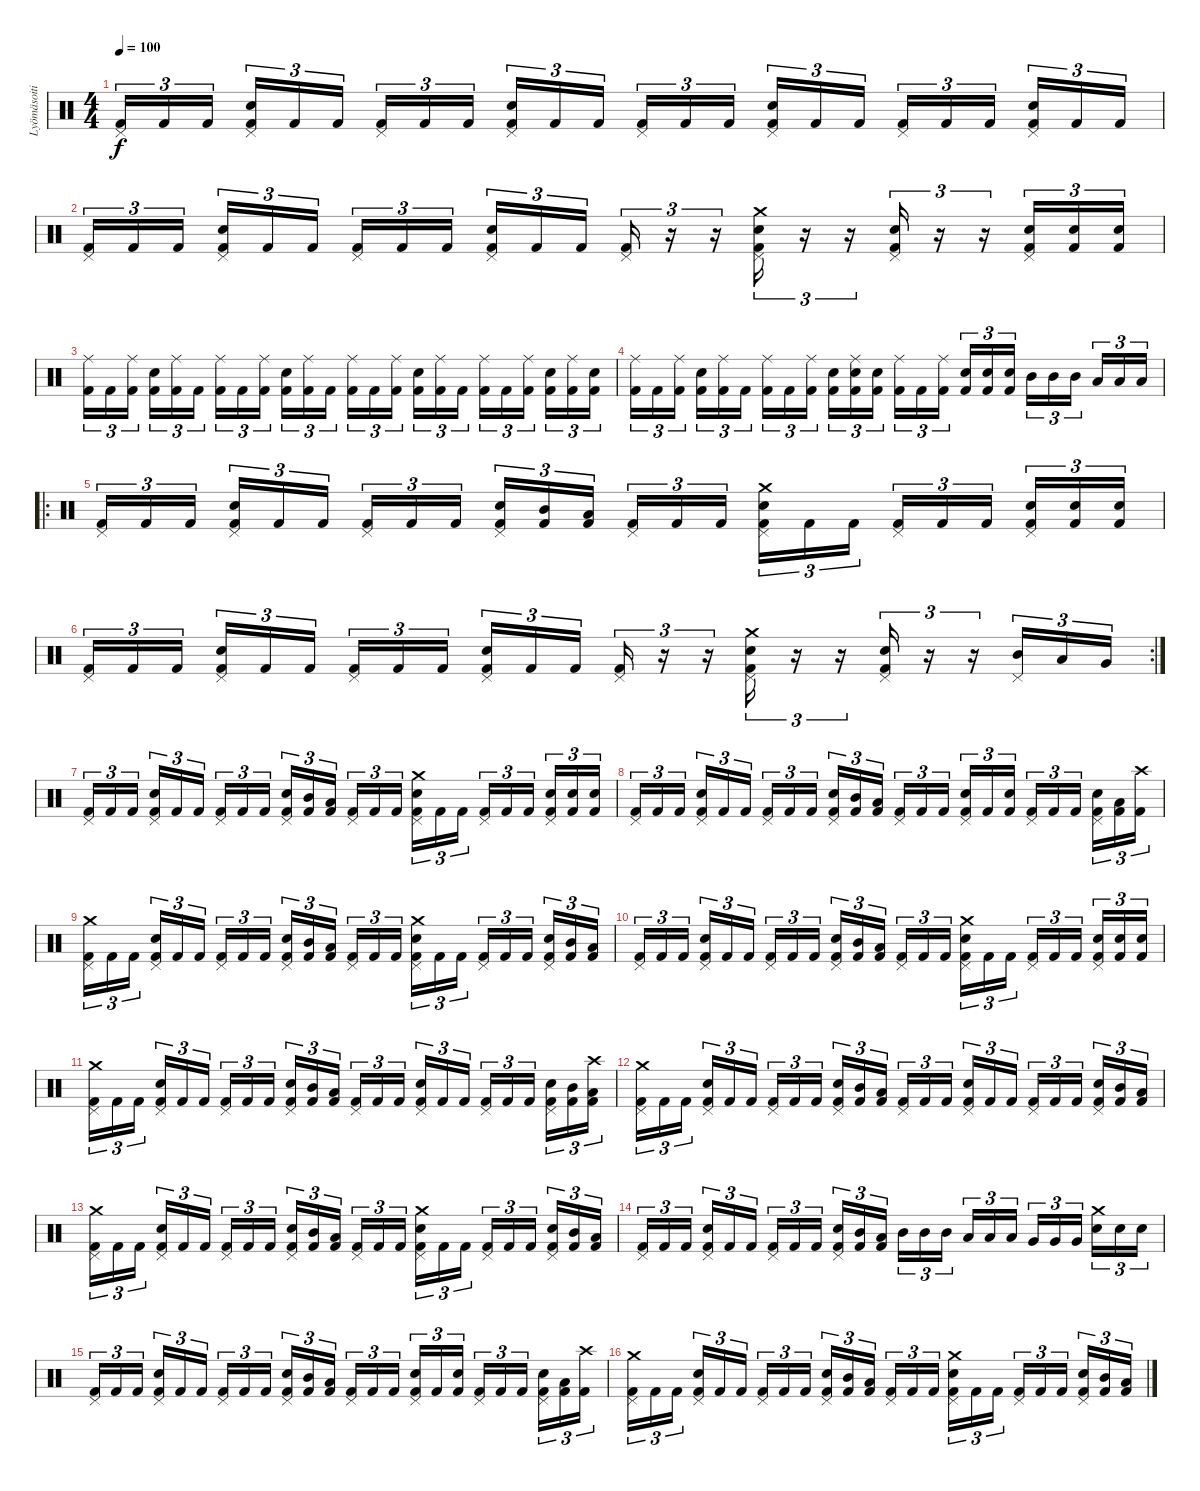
\track ("Lyömäsoitin" "Lyömäsoiti") {instrument percussion}
\staff {score}
\articulation defaults
\ts (4 4)
\tempo 100
\clef neutral
\ks c
("Kick (hit) 2" "Pedal Hi-Hat (hit)").16{tu (3 2) dy f} "Kick (hit) 2".16{tu (3 2)} "Kick (hit) 2".16{tu (3 2)} ("Kick (hit) 2" "Electric Snare (hit)" "Pedal Hi-Hat (hit)").16{tu (3 2)} "Kick (hit) 2".16{tu (3 2)} "Kick (hit) 2".16{tu (3 2)} ("Kick (hit) 2" "Pedal Hi-Hat (hit)").16{tu (3 2)} "Kick (hit) 2".16{tu (3 2)} "Kick (hit) 2".16{tu (3 2)} ("Kick (hit) 2" "Electric Snare (hit)" "Pedal Hi-Hat (hit)").16{tu (3 2)} "Kick (hit) 2".16{tu (3 2)} "Kick (hit) 2".16{tu (3 2)} ("Kick (hit) 2" "Pedal Hi-Hat (hit)").16{tu (3 2)} "Kick (hit) 2".16{tu (3 2)} "Kick (hit) 2".16{tu (3 2)} ("Kick (hit) 2" "Electric Snare (hit)" "Pedal Hi-Hat (hit)").16{tu (3 2)} "Kick (hit) 2".16{tu (3 2)} "Kick (hit) 2".16{tu (3 2)} ("Kick (hit) 2" "Pedal Hi-Hat (hit)").16{tu (3 2)} "Kick (hit) 2".16{tu (3 2)} "Kick (hit) 2".16{tu (3 2)} ("Kick (hit) 2" "Electric Snare (hit)" "Pedal Hi-Hat (hit)").16{tu (3 2)} "Kick (hit) 2".16{tu (3 2)} "Kick (hit) 2".16{tu (3 2)} |
("Kick (hit) 2" "Pedal Hi-Hat (hit)").16{tu (3 2)} "Kick (hit) 2".16{tu (3 2)} "Kick (hit) 2".16{tu (3 2)} ("Kick (hit) 2" "Electric Snare (hit)" "Pedal Hi-Hat (hit)").16{tu (3 2)} "Kick (hit) 2".16{tu (3 2)} "Kick (hit) 2".16{tu (3 2)} ("Kick (hit) 2" "Pedal Hi-Hat (hit)").16{tu (3 2)} "Kick (hit) 2".16{tu (3 2)} "Kick (hit) 2".16{tu (3 2)} ("Kick (hit) 2" "Electric Snare (hit)" "Pedal Hi-Hat (hit)").16{tu (3 2)} "Kick (hit) 2".16{tu (3 2)} "Kick (hit) 2".16{tu (3 2)} ("Kick (hit) 2" "Pedal Hi-Hat (hit)").16{tu (3 2)} r.16{tu (3 2)} r.16{tu (3 2)} ("Kick (hit) 2" "Electric Snare (hit)" "Pedal Hi-Hat (hit)" "Crash medium (hit)").16{tu (3 2)} r.16{tu (3 2)} r.16{tu (3 2)} ("Kick (hit) 2" "Electric Snare (hit)" "Pedal Hi-Hat (hit)").16{tu (3 2)} r.16{tu (3 2)} r.16{tu (3 2)} ("Kick (hit) 2" "Electric Snare (hit)" "Pedal Hi-Hat (hit)").16{tu (3 2)} ("Kick (hit) 2" "Electric Snare (hit)").16{tu (3 2)} ("Kick (hit) 2" "Electric Snare (hit)").16{tu (3 2)} |
("Kick (hit) 2" "Ride (middle)").16{tu (3 2)} "Kick (hit) 2".16{tu (3 2)} ("Kick (hit) 2" "Ride (middle)").16{tu (3 2)} ("Kick (hit) 2" "Electric Snare (hit)").16{tu (3 2)} ("Kick (hit) 2" "Ride (middle)").16{tu (3 2)} "Kick (hit) 2".16{tu (3 2)} ("Kick (hit) 2" "Ride (middle)").16{tu (3 2)} "Kick (hit) 2".16{tu (3 2)} ("Kick (hit) 2" "Ride (middle)").16{tu (3 2)} ("Kick (hit) 2" "Electric Snare (hit)").16{tu (3 2)} ("Kick (hit) 2" "Ride (middle)").16{tu (3 2)} "Kick (hit) 2".16{tu (3 2)} ("Kick (hit) 2" "Ride (middle)").16{tu (3 2)} "Kick (hit) 2".16{tu (3 2)} ("Kick (hit) 2" "Ride (middle)").16{tu (3 2)} ("Kick (hit) 2" "Electric Snare (hit)").16{tu (3 2)} ("Kick (hit) 2" "Ride (middle)").16{tu (3 2)} "Kick (hit) 2".16{tu (3 2)} ("Kick (hit) 2" "Ride (middle)").16{tu (3 2)} "Kick (hit) 2".16{tu (3 2)} ("Kick (hit) 2" "Ride (middle)").16{tu (3 2)} ("Kick (hit) 2" "Electric Snare (hit)").16{tu (3 2)} ("Kick (hit) 2" "Ride (middle)").16{tu (3 2)} ("Kick (hit) 2" "Electric Snare (hit)").16{tu (3 2)} |
("Kick (hit) 2" "Ride (middle)").16{tu (3 2)} "Kick (hit) 2".16{tu (3 2)} ("Kick (hit) 2" "Ride (middle)").16{tu (3 2)} ("Kick (hit) 2" "Electric Snare (hit)").16{tu (3 2)} ("Kick (hit) 2" "Ride (middle)").16{tu (3 2)} "Kick (hit) 2".16{tu (3 2)} ("Kick (hit) 2" "Ride (middle)").16{tu (3 2)} "Kick (hit) 2".16{tu (3 2)} ("Kick (hit) 2" "Ride (middle)").16{tu (3 2)} ("Kick (hit) 2" "Electric Snare (hit)").16{tu (3 2)} ("Kick (hit) 2" "Electric Snare (hit)" "Ride (middle)").16{tu (3 2)} ("Kick (hit) 2" "Electric Snare (hit)").16{tu (3 2)} ("Kick (hit) 2" "Ride (middle)").16{tu (3 2)} "Kick (hit) 2".16{tu (3 2)} ("Kick (hit) 2" "Ride (middle)").16{tu (3 2)} ("Kick (hit) 2" "Electric Snare (hit)").16{tu (3 2)} ("Kick (hit) 2" "Electric Snare (hit)").16{tu (3 2)} ("Kick (hit) 2" "Electric Snare (hit)").16{tu (3 2)} "Mid Tom (hit)".16{tu (3 2)} "Mid Tom (hit)".16{tu (3 2)} "Mid Tom (hit)".16{tu (3 2)} "Low Tom (hit)".16{tu (3 2)} "Low Tom (hit)".16{tu (3 2)} "Low Tom (hit)".16{tu (3 2)} |
\ro
("Kick (hit) 2" "Pedal Hi-Hat (hit)").16{tu (3 2)} "Kick (hit) 2".16{tu (3 2)} "Kick (hit) 2".16{tu (3 2)} ("Kick (hit) 2" "Electric Snare (hit)" "Pedal Hi-Hat (hit)").16{tu (3 2)} "Kick (hit) 2".16{tu (3 2)} "Kick (hit) 2".16{tu (3 2)} ("Kick (hit) 2" "Pedal Hi-Hat (hit)").16{tu (3 2)} "Kick (hit) 2".16{tu (3 2)} "Kick (hit) 2".16{tu (3 2)} ("Kick (hit) 2" "Electric Snare (hit)" "Pedal Hi-Hat (hit)").16{tu (3 2)} ("Kick (hit) 2" "Mid Tom (hit)").16{tu (3 2)} ("Kick (hit) 2" "Low Tom (hit)").16{tu (3 2)} ("Kick (hit) 2" "Pedal Hi-Hat (hit)").16{tu (3 2)} "Kick (hit) 2".16{tu (3 2)} "Kick (hit) 2".16{tu (3 2)} ("Kick (hit) 2" "Electric Snare (hit)" "Pedal Hi-Hat (hit)" "Crash medium (hit)").16{tu (3 2)} "Kick (hit) 2".16{tu (3 2)} "Kick (hit) 2".16{tu (3 2)} ("Kick (hit) 2" "Pedal Hi-Hat (hit)").16{tu (3 2)} "Kick (hit) 2".16{tu (3 2)} "Kick (hit) 2".16{tu (3 2)} ("Kick (hit) 2" "Electric Snare (hit)" "Pedal Hi-Hat (hit)").16{tu (3 2)} ("Kick (hit) 2" "Electric Snare (hit)").16{tu (3 2)} ("Kick (hit) 2" "Electric Snare (hit)").16{tu (3 2)} |
\rc 2
("Kick (hit) 2" "Pedal Hi-Hat (hit)").16{tu (3 2)} "Kick (hit) 2".16{tu (3 2)} "Kick (hit) 2".16{tu (3 2)} ("Kick (hit) 2" "Electric Snare (hit)" "Pedal Hi-Hat (hit)").16{tu (3 2)} "Kick (hit) 2".16{tu (3 2)} "Kick (hit) 2".16{tu (3 2)} ("Kick (hit) 2" "Pedal Hi-Hat (hit)").16{tu (3 2)} "Kick (hit) 2".16{tu (3 2)} "Kick (hit) 2".16{tu (3 2)} ("Kick (hit) 2" "Electric Snare (hit)" "Pedal Hi-Hat (hit)").16{tu (3 2)} "Kick (hit) 2".16{tu (3 2)} "Kick (hit) 2".16{tu (3 2)} ("Kick (hit) 2" "Pedal Hi-Hat (hit)").16{tu (3 2)} r.16{tu (3 2)} r.16{tu (3 2)} ("Kick (hit) 2" "Electric Snare (hit)" "Pedal Hi-Hat (hit)" "Crash medium (hit)").16{tu (3 2)} r.16{tu (3 2)} r.16{tu (3 2)} ("Kick (hit) 2" "Electric Snare (hit)" "Pedal Hi-Hat (hit)").16{tu (3 2)} r.16{tu (3 2)} r.16{tu (3 2)} ("Mid Tom (hit)" "Pedal Hi-Hat (hit)").16{tu (3 2)} "Low Tom (hit)".16{tu (3 2)} "Very Low Tom (hit)".16{tu (3 2)} |
("Kick (hit) 2" "Pedal Hi-Hat (hit)").16{tu (3 2)} "Kick (hit) 2".16{tu (3 2)} "Kick (hit) 2".16{tu (3 2)} ("Kick (hit) 2" "Electric Snare (hit)" "Pedal Hi-Hat (hit)").16{tu (3 2)} "Kick (hit) 2".16{tu (3 2)} "Kick (hit) 2".16{tu (3 2)} ("Kick (hit) 2" "Pedal Hi-Hat (hit)").16{tu (3 2)} "Kick (hit) 2".16{tu (3 2)} "Kick (hit) 2".16{tu (3 2)} ("Kick (hit) 2" "Electric Snare (hit)" "Pedal Hi-Hat (hit)").16{tu (3 2)} ("Kick (hit) 2" "Mid Tom (hit)").16{tu (3 2)} ("Kick (hit) 2" "Low Tom (hit)").16{tu (3 2)} ("Kick (hit) 2" "Pedal Hi-Hat (hit)").16{tu (3 2)} "Kick (hit) 2".16{tu (3 2)} "Kick (hit) 2".16{tu (3 2)} ("Kick (hit) 2" "Electric Snare (hit)" "Pedal Hi-Hat (hit)" "Crash medium (hit)").16{tu (3 2)} "Kick (hit) 2".16{tu (3 2)} "Kick (hit) 2".16{tu (3 2)} ("Kick (hit) 2" "Pedal Hi-Hat (hit)").16{tu (3 2)} "Kick (hit) 2".16{tu (3 2)} "Kick (hit) 2".16{tu (3 2)} ("Kick (hit) 2" "Electric Snare (hit)" "Pedal Hi-Hat (hit)").16{tu (3 2)} ("Kick (hit) 2" "Electric Snare (hit)").16{tu (3 2)} ("Kick (hit) 2" "Electric Snare (hit)").16{tu (3 2)} |
("Kick (hit) 2" "Pedal Hi-Hat (hit)").16{tu (3 2)} "Kick (hit) 2".16{tu (3 2)} "Kick (hit) 2".16{tu (3 2)} ("Kick (hit) 2" "Electric Snare (hit)" "Pedal Hi-Hat (hit)").16{tu (3 2)} "Kick (hit) 2".16{tu (3 2)} "Kick (hit) 2".16{tu (3 2)} ("Kick (hit) 2" "Pedal Hi-Hat (hit)").16{tu (3 2)} "Kick (hit) 2".16{tu (3 2)} "Kick (hit) 2".16{tu (3 2)} ("Kick (hit) 2" "Electric Snare (hit)" "Pedal Hi-Hat (hit)").16{tu (3 2)} ("Kick (hit) 2" "Mid Tom (hit)").16{tu (3 2)} ("Kick (hit) 2" "Low Tom (hit)").16{tu (3 2)} ("Kick (hit) 2" "Pedal Hi-Hat (hit)").16{tu (3 2)} "Kick (hit) 2".16{tu (3 2)} "Kick (hit) 2".16{tu (3 2)} ("Kick (hit) 2" "Electric Snare (hit)" "Pedal Hi-Hat (hit)").16{tu (3 2)} "Kick (hit) 2".16{tu (3 2)} ("Kick (hit) 2" "Electric Snare (hit)").16{tu (3 2)} ("Kick (hit) 2" "Pedal Hi-Hat (hit)").16{tu (3 2)} "Kick (hit) 2".16{tu (3 2)} "Kick (hit) 2".16{tu (3 2)} ("Kick (hit) 2" "Electric Snare (hit)" "Pedal Hi-Hat (hit)").16{tu (3 2)} ("Kick (hit) 2" "Low Tom (hit)").16{tu (3 2)} ("Kick (hit) 2" "Crash high (hit)").16{tu (3 2)} |
("Kick (hit) 2" "Pedal Hi-Hat (hit)" "Crash medium (hit)").16{tu (3 2)} "Kick (hit) 2".16{tu (3 2)} "Kick (hit) 2".16{tu (3 2)} ("Kick (hit) 2" "Electric Snare (hit)" "Pedal Hi-Hat (hit)").16{tu (3 2)} "Kick (hit) 2".16{tu (3 2)} "Kick (hit) 2".16{tu (3 2)} ("Kick (hit) 2" "Pedal Hi-Hat (hit)").16{tu (3 2)} "Kick (hit) 2".16{tu (3 2)} "Kick (hit) 2".16{tu (3 2)} ("Kick (hit) 2" "Electric Snare (hit)" "Pedal Hi-Hat (hit)").16{tu (3 2)} ("Kick (hit) 2" "Mid Tom (hit)").16{tu (3 2)} ("Kick (hit) 2" "Low Tom (hit)").16{tu (3 2)} ("Kick (hit) 2" "Pedal Hi-Hat (hit)").16{tu (3 2)} "Kick (hit) 2".16{tu (3 2)} "Kick (hit) 2".16{tu (3 2)} ("Kick (hit) 2" "Electric Snare (hit)" "Pedal Hi-Hat (hit)" "Crash medium (hit)").16{tu (3 2)} "Kick (hit) 2".16{tu (3 2)} "Kick (hit) 2".16{tu (3 2)} ("Kick (hit) 2" "Pedal Hi-Hat (hit)").16{tu (3 2)} "Kick (hit) 2".16{tu (3 2)} "Kick (hit) 2".16{tu (3 2)} ("Kick (hit) 2" "Electric Snare (hit)" "Pedal Hi-Hat (hit)").16{tu (3 2)} ("Kick (hit) 2" "Mid Tom (hit)").16{tu (3 2)} ("Kick (hit) 2" "Low Tom (hit)").16{tu (3 2)} |
("Kick (hit) 2" "Pedal Hi-Hat (hit)").16{tu (3 2)} "Kick (hit) 2".16{tu (3 2)} "Kick (hit) 2".16{tu (3 2)} ("Kick (hit) 2" "Electric Snare (hit)" "Pedal Hi-Hat (hit)").16{tu (3 2)} "Kick (hit) 2".16{tu (3 2)} "Kick (hit) 2".16{tu (3 2)} ("Kick (hit) 2" "Pedal Hi-Hat (hit)").16{tu (3 2)} "Kick (hit) 2".16{tu (3 2)} "Kick (hit) 2".16{tu (3 2)} ("Kick (hit) 2" "Electric Snare (hit)" "Pedal Hi-Hat (hit)").16{tu (3 2)} ("Kick (hit) 2" "Mid Tom (hit)").16{tu (3 2)} ("Kick (hit) 2" "Low Tom (hit)").16{tu (3 2)} ("Kick (hit) 2" "Pedal Hi-Hat (hit)").16{tu (3 2)} "Kick (hit) 2".16{tu (3 2)} "Kick (hit) 2".16{tu (3 2)} ("Kick (hit) 2" "Electric Snare (hit)" "Pedal Hi-Hat (hit)" "Crash medium (hit)").16{tu (3 2)} "Kick (hit) 2".16{tu (3 2)} "Kick (hit) 2".16{tu (3 2)} ("Kick (hit) 2" "Pedal Hi-Hat (hit)").16{tu (3 2)} "Kick (hit) 2".16{tu (3 2)} "Kick (hit) 2".16{tu (3 2)} ("Kick (hit) 2" "Electric Snare (hit)" "Pedal Hi-Hat (hit)").16{tu (3 2)} ("Kick (hit) 2" "Electric Snare (hit)").16{tu (3 2)} ("Kick (hit) 2" "Electric Snare (hit)").16{tu (3 2)} |
("Kick (hit) 2" "Pedal Hi-Hat (hit)" "Crash medium (hit)").16{tu (3 2)} "Kick (hit) 2".16{tu (3 2)} "Kick (hit) 2".16{tu (3 2)} ("Kick (hit) 2" "Electric Snare (hit)" "Pedal Hi-Hat (hit)").16{tu (3 2)} "Kick (hit) 2".16{tu (3 2)} "Kick (hit) 2".16{tu (3 2)} ("Kick (hit) 2" "Pedal Hi-Hat (hit)").16{tu (3 2)} "Kick (hit) 2".16{tu (3 2)} "Kick (hit) 2".16{tu (3 2)} ("Kick (hit) 2" "Electric Snare (hit)" "Pedal Hi-Hat (hit)").16{tu (3 2)} ("Kick (hit) 2" "Mid Tom (hit)").16{tu (3 2)} ("Kick (hit) 2" "Low Tom (hit)").16{tu (3 2)} ("Kick (hit) 2" "Pedal Hi-Hat (hit)").16{tu (3 2)} "Kick (hit) 2".16{tu (3 2)} "Kick (hit) 2".16{tu (3 2)} ("Kick (hit) 2" "Electric Snare (hit)" "Pedal Hi-Hat (hit)").16{tu (3 2)} "Kick (hit) 2".16{tu (3 2)} "Kick (hit) 2".16{tu (3 2)} ("Kick (hit) 2" "Pedal Hi-Hat (hit)").16{tu (3 2)} "Kick (hit) 2".16{tu (3 2)} "Kick (hit) 2".16{tu (3 2)} ("Kick (hit) 2" "Electric Snare (hit)" "Pedal Hi-Hat (hit)").16{tu (3 2)} ("Kick (hit) 2" "Mid Tom (hit)").16{tu (3 2)} ("Kick (hit) 2" "Low Tom (hit)" "Crash high (hit)").16{tu (3 2)} |
("Kick (hit) 2" "Pedal Hi-Hat (hit)" "Crash medium (hit)").16{tu (3 2)} "Kick (hit) 2".16{tu (3 2)} "Kick (hit) 2".16{tu (3 2)} ("Kick (hit) 2" "Electric Snare (hit)" "Pedal Hi-Hat (hit)").16{tu (3 2)} "Kick (hit) 2".16{tu (3 2)} "Kick (hit) 2".16{tu (3 2)} ("Kick (hit) 2" "Pedal Hi-Hat (hit)").16{tu (3 2)} "Kick (hit) 2".16{tu (3 2)} "Kick (hit) 2".16{tu (3 2)} ("Kick (hit) 2" "Electric Snare (hit)" "Pedal Hi-Hat (hit)").16{tu (3 2)} ("Kick (hit) 2" "Mid Tom (hit)").16{tu (3 2)} ("Kick (hit) 2" "Low Tom (hit)").16{tu (3 2)} ("Kick (hit) 2" "Pedal Hi-Hat (hit)").16{tu (3 2)} "Kick (hit) 2".16{tu (3 2)} "Kick (hit) 2".16{tu (3 2)} ("Kick (hit) 2" "Electric Snare (hit)" "Pedal Hi-Hat (hit)").16{tu (3 2)} "Kick (hit) 2".16{tu (3 2)} "Kick (hit) 2".16{tu (3 2)} ("Kick (hit) 2" "Pedal Hi-Hat (hit)").16{tu (3 2)} "Kick (hit) 2".16{tu (3 2)} "Kick (hit) 2".16{tu (3 2)} ("Kick (hit) 2" "Electric Snare (hit)" "Pedal Hi-Hat (hit)").16{tu (3 2)} ("Kick (hit) 2" "Mid Tom (hit)").16{tu (3 2)} ("Kick (hit) 2" "Low Tom (hit)").16{tu (3 2)} |
("Kick (hit) 2" "Pedal Hi-Hat (hit)" "Crash medium (hit)").16{tu (3 2)} "Kick (hit) 2".16{tu (3 2)} "Kick (hit) 2".16{tu (3 2)} ("Kick (hit) 2" "Electric Snare (hit)" "Pedal Hi-Hat (hit)").16{tu (3 2)} "Kick (hit) 2".16{tu (3 2)} "Kick (hit) 2".16{tu (3 2)} ("Kick (hit) 2" "Pedal Hi-Hat (hit)").16{tu (3 2)} "Kick (hit) 2".16{tu (3 2)} "Kick (hit) 2".16{tu (3 2)} ("Kick (hit) 2" "Electric Snare (hit)" "Pedal Hi-Hat (hit)").16{tu (3 2)} ("Kick (hit) 2" "Mid Tom (hit)").16{tu (3 2)} ("Kick (hit) 2" "Low Tom (hit)").16{tu (3 2)} ("Kick (hit) 2" "Pedal Hi-Hat (hit)").16{tu (3 2)} "Kick (hit) 2".16{tu (3 2)} "Kick (hit) 2".16{tu (3 2)} ("Kick (hit) 2" "Electric Snare (hit)" "Pedal Hi-Hat (hit)" "Crash medium (hit)").16{tu (3 2)} "Kick (hit) 2".16{tu (3 2)} "Kick (hit) 2".16{tu (3 2)} ("Kick (hit) 2" "Pedal Hi-Hat (hit)").16{tu (3 2)} "Kick (hit) 2".16{tu (3 2)} "Kick (hit) 2".16{tu (3 2)} ("Kick (hit) 2" "Electric Snare (hit)" "Pedal Hi-Hat (hit)").16{tu (3 2)} ("Kick (hit) 2" "Mid Tom (hit)").16{tu (3 2)} ("Kick (hit) 2" "Low Tom (hit)").16{tu (3 2)} |
("Kick (hit) 2" "Pedal Hi-Hat (hit)").16{tu (3 2)} "Kick (hit) 2".16{tu (3 2)} "Kick (hit) 2".16{tu (3 2)} ("Kick (hit) 2" "Electric Snare (hit)" "Pedal Hi-Hat (hit)").16{tu (3 2)} "Kick (hit) 2".16{tu (3 2)} "Kick (hit) 2".16{tu (3 2)} ("Kick (hit) 2" "Pedal Hi-Hat (hit)").16{tu (3 2)} "Kick (hit) 2".16{tu (3 2)} "Kick (hit) 2".16{tu (3 2)} ("Kick (hit) 2" "Electric Snare (hit)" "Pedal Hi-Hat (hit)").16{tu (3 2)} ("Kick (hit) 2" "Mid Tom (hit)").16{tu (3 2)} ("Kick (hit) 2" "Low Tom (hit)").16{tu (3 2)} "Mid Tom (hit)".16{tu (3 2)} "Mid Tom (hit)".16{tu (3 2)} "Mid Tom (hit)".16{tu (3 2)} "Low Tom (hit)".16{tu (3 2)} "Low Tom (hit)".16{tu (3 2)} "Low Tom (hit)".16{tu (3 2)} "Very Low Tom (hit)".16{tu (3 2)} "Very Low Tom (hit)".16{tu (3 2)} "Very Low Tom (hit)".16{tu (3 2)} ("Electric Snare (hit)" "Crash medium (hit)").16{tu (3 2)} "Electric Snare (hit)".16{tu (3 2)} "Electric Snare (hit)".16{tu (3 2)} |
("Kick (hit) 2" "Pedal Hi-Hat (hit)").16{tu (3 2)} "Kick (hit) 2".16{tu (3 2)} "Kick (hit) 2".16{tu (3 2)} ("Kick (hit) 2" "Electric Snare (hit)" "Pedal Hi-Hat (hit)").16{tu (3 2)} "Kick (hit) 2".16{tu (3 2)} "Kick (hit) 2".16{tu (3 2)} ("Kick (hit) 2" "Pedal Hi-Hat (hit)").16{tu (3 2)} "Kick (hit) 2".16{tu (3 2)} "Kick (hit) 2".16{tu (3 2)} ("Kick (hit) 2" "Electric Snare (hit)" "Pedal Hi-Hat (hit)").16{tu (3 2)} ("Kick (hit) 2" "Mid Tom (hit)").16{tu (3 2)} ("Kick (hit) 2" "Low Tom (hit)").16{tu (3 2)} ("Kick (hit) 2" "Pedal Hi-Hat (hit)").16{tu (3 2)} "Kick (hit) 2".16{tu (3 2)} "Kick (hit) 2".16{tu (3 2)} ("Kick (hit) 2" "Electric Snare (hit)" "Pedal Hi-Hat (hit)").16{tu (3 2)} "Kick (hit) 2".16{tu (3 2)} ("Kick (hit) 2" "Electric Snare (hit)").16{tu (3 2)} ("Kick (hit) 2" "Pedal Hi-Hat (hit)").16{tu (3 2)} "Kick (hit) 2".16{tu (3 2)} "Kick (hit) 2".16{tu (3 2)} ("Kick (hit) 2" "Electric Snare (hit)" "Pedal Hi-Hat (hit)").16{tu (3 2)} ("Kick (hit) 2" "Low Tom (hit)").16{tu (3 2)} ("Kick (hit) 2" "Crash high (hit)").16{tu (3 2)} |
("Kick (hit) 2" "Pedal Hi-Hat (hit)" "Crash medium (hit)").16{tu (3 2)} "Kick (hit) 2".16{tu (3 2)} "Kick (hit) 2".16{tu (3 2)} ("Kick (hit) 2" "Electric Snare (hit)" "Pedal Hi-Hat (hit)").16{tu (3 2)} "Kick (hit) 2".16{tu (3 2)} "Kick (hit) 2".16{tu (3 2)} ("Kick (hit) 2" "Pedal Hi-Hat (hit)").16{tu (3 2)} "Kick (hit) 2".16{tu (3 2)} "Kick (hit) 2".16{tu (3 2)} ("Kick (hit) 2" "Electric Snare (hit)" "Pedal Hi-Hat (hit)").16{tu (3 2)} ("Kick (hit) 2" "Mid Tom (hit)").16{tu (3 2)} ("Kick (hit) 2" "Low Tom (hit)").16{tu (3 2)} ("Kick (hit) 2" "Pedal Hi-Hat (hit)").16{tu (3 2)} "Kick (hit) 2".16{tu (3 2)} "Kick (hit) 2".16{tu (3 2)} ("Kick (hit) 2" "Electric Snare (hit)" "Pedal Hi-Hat (hit)" "Crash medium (hit)").16{tu (3 2)} "Kick (hit) 2".16{tu (3 2)} "Kick (hit) 2".16{tu (3 2)} ("Kick (hit) 2" "Pedal Hi-Hat (hit)").16{tu (3 2)} "Kick (hit) 2".16{tu (3 2)} "Kick (hit) 2".16{tu (3 2)} ("Kick (hit) 2" "Electric Snare (hit)" "Pedal Hi-Hat (hit)").16{tu (3 2)} ("Kick (hit) 2" "Mid Tom (hit)").16{tu (3 2)} ("Kick (hit) 2" "Low Tom (hit)").16{tu (3 2)}
